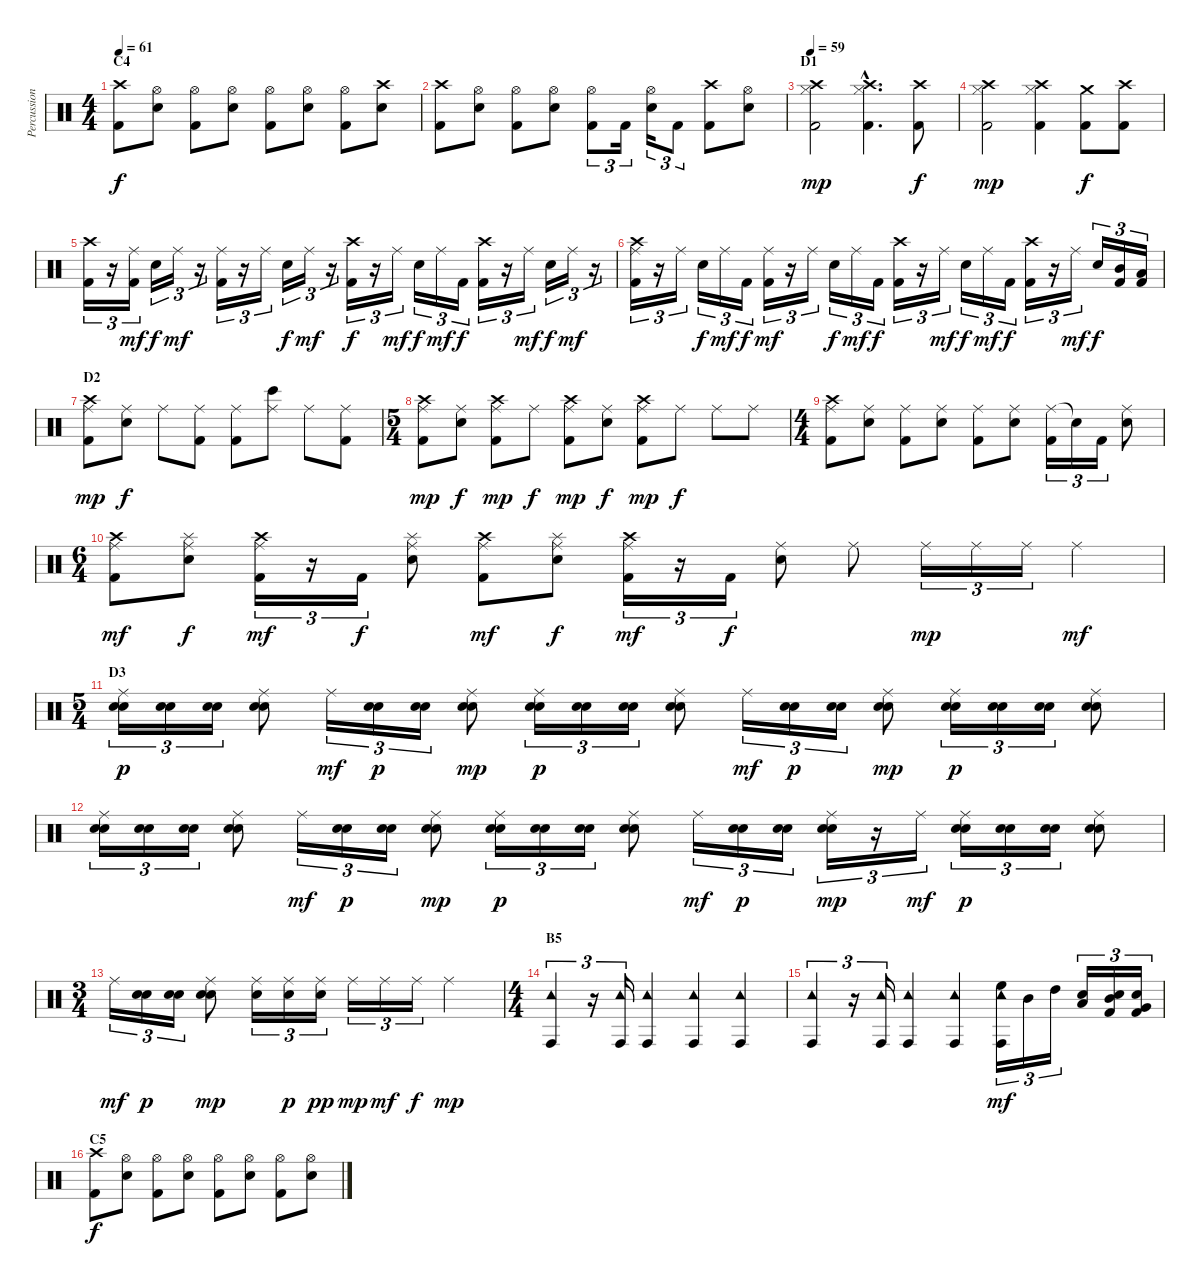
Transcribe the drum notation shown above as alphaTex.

\track ("Percussion" "Percussion") {instrument percussion}
\staff {score}
\articulation defaults
\ts (4 4)
\section ("" "C4")
\tempo 61
\clef neutral
\ks c
("Crash high (hit)" "Kick (hit) 2").8{dy f} ("Hi-Hat (open)" "Electric Snare (hit)").8 ("Hi-Hat (open)" "Kick (hit) 2").8 ("Hi-Hat (open)" "Electric Snare (hit)").8 ("Hi-Hat (open)" "Kick (hit) 2").8 ("Hi-Hat (open)" "Electric Snare (hit)").8 ("Hi-Hat (open)" "Kick (hit) 2").8 ("Crash high (hit)" "Electric Snare (hit)").8 |
("Crash high (hit)" "Kick (hit) 2").8 ("Hi-Hat (open)" "Electric Snare (hit)").8 ("Hi-Hat (open)" "Kick (hit) 2").8 ("Hi-Hat (open)" "Electric Snare (hit)").8 ("Hi-Hat (open)" "Kick (hit) 2").8{tu (3 2)} "Kick (hit) 2".16{tu (3 2)} ("Hi-Hat (open)" "Electric Snare (hit)").16{tu (3 2)} "Kick (hit) 2".8{tu (3 2)} ("Crash high (hit)" "Kick (hit) 2").8 ("Hi-Hat (open)" "Electric Snare (hit)").8 |
\section ("" "D1")
\tempo 59
("Hi-Hat (closed)" "Crash high (hit)" "Kick (hit) 2").2{dy mp} ("Hi-Hat (closed)"{hac} "Crash high (hit)"{hac} "Kick (hit) 2"{hac}).4{d} ("Crash high (hit)" "Kick (hit) 2").8{dy f} |
("Hi-Hat (closed)" "Crash high (hit)" "Kick (hit) 2").2{dy mp} ("Crash high (hit)" "Hi-Hat (closed)" "Kick (hit) 2").4 ("Crash medium (hit)" "Kick (hit) 2").8{dy f} ("Crash high (hit)" "Kick (hit) 2").8 |
("Crash high (hit)" "Kick (hit) 2").16{tu (3 2)} r.16{tu (3 2)} ("Ride (middle)" "Kick (hit) 2").16{tu (3 2) dy mf} "Electric Snare (hit)".16{tu (3 2) dy f} "Ride (middle)".16{tu (3 2) dy mf} r.16{tu (3 2)} ("Ride (middle)" "Kick (hit) 2").16{tu (3 2)} r.16{tu (3 2)} "Ride (middle)".16{tu (3 2)} "Electric Snare (hit)".16{tu (3 2) dy f} "Ride (middle)".16{tu (3 2) dy mf} r.16{tu (3 2)} ("Crash high (hit)" "Kick (hit) 2").16{tu (3 2) dy f} r.16{tu (3 2)} "Ride (middle)".16{tu (3 2) dy mf} "Electric Snare (hit)".16{tu (3 2) dy f} "Ride (middle)".16{tu (3 2) dy mf} "Kick (hit) 2".16{tu (3 2) dy f} ("Crash high (hit)" "Kick (hit) 2").16{tu (3 2)} r.16{tu (3 2)} "Ride (middle)".16{tu (3 2) dy mf} "Electric Snare (hit)".16{tu (3 2) dy f} "Ride (middle)".16{tu (3 2) dy mf} r.16{tu (3 2)} |
("Crash high (hit)" "Ride (middle)" "Kick (hit) 2").16{tu (3 2)} r.16{tu (3 2)} "Ride (middle)".16{tu (3 2)} "Electric Snare (hit)".16{tu (3 2) dy f} "Ride (middle)".16{tu (3 2) dy mf} "Kick (hit) 2".16{tu (3 2) dy f} ("Ride (middle)" "Kick (hit) 2").16{tu (3 2) dy mf} r.16{tu (3 2)} "Ride (middle)".16{tu (3 2)} "Electric Snare (hit)".16{tu (3 2) dy f} "Ride (middle)".16{tu (3 2) dy mf} "Kick (hit) 2".16{tu (3 2) dy f} ("Crash high (hit)" "Kick (hit) 2").16{tu (3 2)} r.16{tu (3 2)} "Ride (middle)".16{tu (3 2) dy mf} "Electric Snare (hit)".16{tu (3 2) dy f} "Ride (middle)".16{tu (3 2) dy mf} "Kick (hit) 2".16{tu (3 2) dy f} ("Crash high (hit)" "Kick (hit) 2").16{tu (3 2)} r.16{tu (3 2)} "Ride (middle)".16{tu (3 2) dy mf} "Electric Snare (hit)".16{tu (3 2) dy f} ("Mid Tom (hit)" "Kick (hit) 2").16{tu (3 2)} ("Low Tom (hit)" "Kick (hit) 2").16{tu (3 2)} |
\section ("" "D2")
("Crash high (hit)" "Ride (middle)" "Kick (hit) 2").8{dy mp} ("Ride (middle)" "Electric Snare (hit)").8{dy f} "Ride (middle)".8 ("Ride (middle)" "Kick (hit) 2").8 ("Ride (middle)" "Kick (hit) 2").8 ("Bongo High (hit)" "Ride (middle)").8 "Ride (middle)".8 ("Ride (middle)" "Kick (hit) 2").8 |
\ts (5 4)
("Crash high (hit)" "Ride (middle)" "Kick (hit) 2").8{dy mp} ("Ride (middle)" "Electric Snare (hit)").8{dy f} ("Crash high (hit)" "Ride (middle)" "Kick (hit) 2").8{dy mp} "Ride (middle)".8{dy f} ("Crash high (hit)" "Ride (middle)" "Kick (hit) 2").8{dy mp} ("Ride (middle)" "Electric Snare (hit)").8{dy f} ("Crash high (hit)" "Ride (middle)" "Kick (hit) 2").8{dy mp} "Ride (middle)".8{dy f} "Ride (middle)".8 "Ride (middle)".8 |
\ts (4 4)
("Crash high (hit)" "Ride (middle)" "Kick (hit) 2").8 ("Ride (middle)" "Electric Snare (hit)").8 ("Ride (middle)" "Kick (hit) 2").8 ("Ride (middle)" "Electric Snare (hit)").8 ("Ride (middle)" "Kick (hit) 2").8 ("Ride (middle)" "Electric Snare (hit)").8 ("Ride (middle)" "Kick (hit) 2").16{tu (3 2)} "Snare (hit)"{t}.16{tu (3 2)} "Kick (hit) 2".16{tu (3 2)} ("Ride (middle)" "Electric Snare (hit)").8 |
\ts (6 4)
("Crash high (hit)" "Ride (middle)" "Kick (hit) 2").8{dy mf} ("Splash (hit)" "Ride (middle)" "Electric Snare (hit)").8{dy f} ("Crash high (hit)" "Ride (middle)" "Kick (hit) 2").16{tu (3 2) dy mf} r.16{tu (3 2)} "Kick (hit) 2".16{tu (3 2) dy f} ("Splash (hit)" "Ride (middle)" "Electric Snare (hit)").8 ("Crash high (hit)" "Ride (middle)" "Kick (hit) 2").8{dy mf} ("Splash (hit)" "Ride (middle)" "Electric Snare (hit)").8{dy f} ("Crash high (hit)" "Ride (middle)" "Kick (hit) 2").16{tu (3 2) dy mf} r.16{tu (3 2)} "Kick (hit) 2".16{tu (3 2) dy f} ("Ride (middle)" "Electric Snare (hit)").8 "Ride (middle)".8 "Ride (middle)".16{tu (3 2) dy mp} "Ride (middle)".16{tu (3 2)} "Ride (middle)".16{tu (3 2)} "Ride (middle)".4{dy mf} |
\ts (5 4)
\section ("" "D3")
("Ride (middle)" "Electric Snare (hit)" "Snare (hit) 2").16{tu (3 2) dy p volume 10} ("Electric Snare (hit)" "Snare (hit) 2").16{tu (3 2)} ("Electric Snare (hit)" "Snare (hit) 2").16{tu (3 2)} ("Ride (middle)" "Electric Snare (hit)" "Snare (hit) 2").8 "Ride (middle)".16{tu (3 2) dy mf} ("Electric Snare (hit)" "Snare (hit) 2").16{tu (3 2) dy p} ("Electric Snare (hit)" "Snare (hit) 2").16{tu (3 2)} ("Ride (middle)" "Electric Snare (hit)" "Snare (hit) 2").8{dy mp} ("Ride (middle)" "Electric Snare (hit)" "Snare (hit) 2").16{tu (3 2) dy p} ("Electric Snare (hit)" "Snare (hit) 2").16{tu (3 2)} ("Electric Snare (hit)" "Snare (hit) 2").16{tu (3 2)} ("Ride (middle)" "Electric Snare (hit)" "Snare (hit) 2").8 "Ride (middle)".16{tu (3 2) dy mf} ("Electric Snare (hit)" "Snare (hit) 2").16{tu (3 2) dy p} ("Electric Snare (hit)" "Snare (hit) 2").16{tu (3 2)} ("Ride (middle)" "Electric Snare (hit)" "Snare (hit) 2").8{dy mp} ("Ride (middle)" "Electric Snare (hit)" "Snare (hit) 2").16{tu (3 2) dy p} ("Electric Snare (hit)" "Snare (hit) 2").16{tu (3 2)} ("Electric Snare (hit)" "Snare (hit) 2").16{tu (3 2)} ("Ride (middle)" "Electric Snare (hit)" "Snare (hit) 2").8 |
("Ride (middle)" "Electric Snare (hit)" "Snare (hit) 2").16{tu (3 2)} ("Electric Snare (hit)" "Snare (hit) 2").16{tu (3 2)} ("Electric Snare (hit)" "Snare (hit) 2").16{tu (3 2)} ("Ride (middle)" "Electric Snare (hit)" "Snare (hit) 2").8 "Ride (middle)".16{tu (3 2) dy mf} ("Electric Snare (hit)" "Snare (hit) 2").16{tu (3 2) dy p} ("Electric Snare (hit)" "Snare (hit) 2").16{tu (3 2)} ("Ride (middle)" "Electric Snare (hit)" "Snare (hit) 2").8{dy mp} ("Ride (middle)" "Electric Snare (hit)" "Snare (hit) 2").16{tu (3 2) dy p} ("Electric Snare (hit)" "Snare (hit) 2").16{tu (3 2)} ("Electric Snare (hit)" "Snare (hit) 2").16{tu (3 2)} ("Ride (middle)" "Electric Snare (hit)" "Snare (hit) 2").8 "Ride (middle)".16{tu (3 2) dy mf} ("Electric Snare (hit)" "Snare (hit) 2").16{tu (3 2) dy p} ("Electric Snare (hit)" "Snare (hit) 2").16{tu (3 2)} ("Ride (middle)" "Electric Snare (hit)" "Snare (hit) 2").16{tu (3 2) dy mp} r.16{tu (3 2)} "Ride (middle)".16{tu (3 2) dy mf} ("Ride (middle)" "Electric Snare (hit)" "Snare (hit) 2").16{tu (3 2) dy p} ("Electric Snare (hit)" "Snare (hit) 2").16{tu (3 2)} ("Electric Snare (hit)" "Snare (hit) 2").16{tu (3 2)} ("Ride (middle)" "Electric Snare (hit)" "Snare (hit) 2").8 |
\ts (3 4)
"Ride (middle)".16{tu (3 2) dy mf} ("Electric Snare (hit)" "Snare (hit) 2").16{tu (3 2) dy p} ("Electric Snare (hit)" "Snare (hit) 2").16{tu (3 2)} ("Ride (middle)" "Electric Snare (hit)" "Snare (hit) 2").8{dy mp} ("Ride (middle)" "Electric Snare (hit)").16{tu (3 2)} ("Ride (middle)" "Electric Snare (hit)").16{tu (3 2) dy p} ("Ride (middle)" "Electric Snare (hit)").16{tu (3 2) dy pp} "Ride (middle)".16{tu (3 2) dy mp} "Ride (middle)".16{tu (3 2) dy mf} "Ride (middle)".16{tu (3 2) dy f} "Ride (middle)".4{dy mp volume 13} |
\ts (4 4)
\section ("" "B5")
("Tambourine (hit)" "Conga high (hit)").4{tu (3 2)} r.16{tu (3 2)} ("Tambourine (hit)" "Conga high (hit)").16{tu (3 2)} ("Tambourine (hit)" "Conga high (hit)").4 ("Tambourine (hit)" "Conga high (hit)").4 ("Tambourine (hit)" "Conga high (hit)").4 |
("Tambourine (hit)" "Conga high (hit)").4{tu (3 2)} r.16{tu (3 2)} ("Tambourine (hit)" "Conga high (hit)").16{tu (3 2)} ("Tambourine (hit)" "Conga high (hit)").4 ("Tambourine (hit)" "Conga high (hit)").4 ("Tambourine (hit)" "Conga high (hit)" "High Floor Tom (hit)").16{tu (3 2) dy mf} "Mid Tom (hit)".16{tu (3 2)} "High Tom (hit)".16{tu (3 2)} ("Electric Snare (hit)" "Low Tom (hit)").16{tu (3 2)} ("Kick (hit) 2" "Electric Snare (hit)" "Mid Tom (hit)").16{tu (3 2)} ("Kick (hit) 2" "Electric Snare (hit)" "Very Low Tom (hit)").16{tu (3 2)} |
\section ("" "C5")
("Crash high (hit)" "Kick (hit) 2").8{dy f} ("Hi-Hat (open)" "Electric Snare (hit)").8 ("Hi-Hat (open)" "Kick (hit) 2").8 ("Hi-Hat (open)" "Electric Snare (hit)").8 ("Hi-Hat (open)" "Kick (hit) 2").8 ("Hi-Hat (open)" "Electric Snare (hit)").8 ("Hi-Hat (open)" "Kick (hit) 2").8 ("Hi-Hat (open)" "Electric Snare (hit)").8
